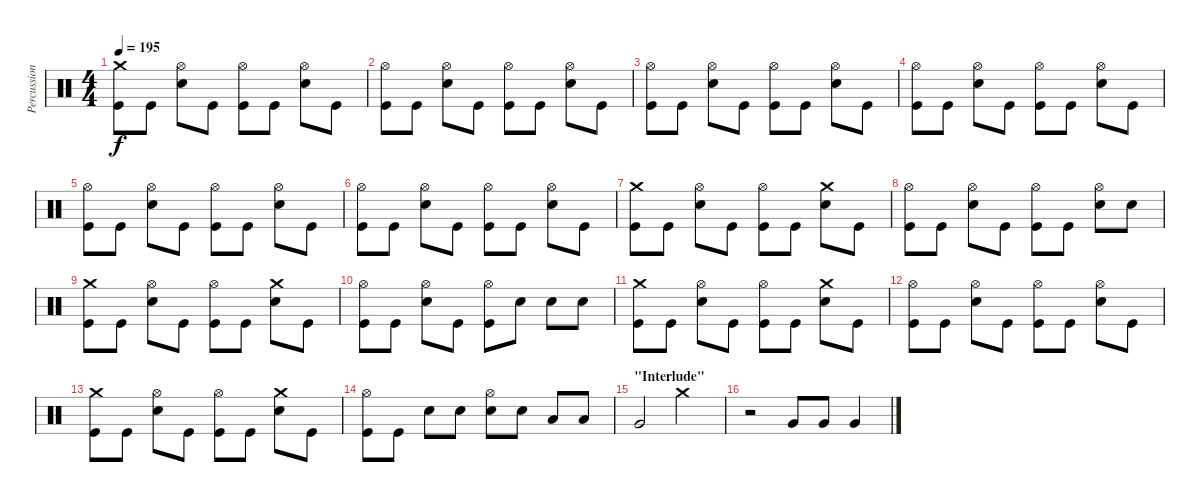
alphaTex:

\track ("Percussion" "Percussion") {instrument percussion}
\staff {score}
\articulation defaults
\ts (4 4)
\tempo 195
\clef neutral
\ks c
("Crash medium (hit)" "Kick (hit)").8{dy f} "Kick (hit)".8 ("Hi-Hat (open)" "Snare (hit) 2").8 "Kick (hit)".8 ("Hi-Hat (open)" "Kick (hit)").8 "Kick (hit)".8 ("Hi-Hat (open)" "Snare (hit) 2").8 "Kick (hit)".8 |
("Hi-Hat (open)" "Kick (hit)").8 "Kick (hit)".8 ("Hi-Hat (open)" "Snare (hit) 2").8 "Kick (hit)".8 ("Hi-Hat (open)" "Kick (hit)").8 "Kick (hit)".8 ("Hi-Hat (open)" "Snare (hit) 2").8 "Kick (hit)".8 |
("Hi-Hat (open)" "Kick (hit)").8 "Kick (hit)".8 ("Hi-Hat (open)" "Snare (hit) 2").8 "Kick (hit)".8 ("Hi-Hat (open)" "Kick (hit)").8 "Kick (hit)".8 ("Hi-Hat (open)" "Snare (hit) 2").8 "Kick (hit)".8 |
("Hi-Hat (open)" "Kick (hit)").8 "Kick (hit)".8 ("Hi-Hat (open)" "Snare (hit) 2").8 "Kick (hit)".8 ("Hi-Hat (open)" "Kick (hit)").8 "Kick (hit)".8 ("Hi-Hat (open)" "Snare (hit) 2").8 "Kick (hit)".8 |
("Hi-Hat (open)" "Kick (hit)").8 "Kick (hit)".8 ("Hi-Hat (open)" "Snare (hit) 2").8 "Kick (hit)".8 ("Hi-Hat (open)" "Kick (hit)").8 "Kick (hit)".8 ("Hi-Hat (open)" "Snare (hit) 2").8 "Kick (hit)".8 |
("Hi-Hat (open)" "Kick (hit)").8 "Kick (hit)".8 ("Hi-Hat (open)" "Snare (hit) 2").8 "Kick (hit)".8 ("Hi-Hat (open)" "Kick (hit)").8 "Kick (hit)".8 ("Hi-Hat (open)" "Snare (hit) 2").8 "Kick (hit)".8 |
("Crash medium (hit)" "Kick (hit)").8 "Kick (hit)".8 ("Hi-Hat (open)" "Snare (hit) 2").8 "Kick (hit)".8 ("Hi-Hat (open)" "Kick (hit)").8 "Kick (hit)".8 ("Crash medium (hit)" "Snare (hit) 2").8 "Kick (hit)".8 |
("Hi-Hat (open)" "Kick (hit)").8 "Kick (hit)".8 ("Hi-Hat (open)" "Snare (hit) 2").8 "Kick (hit)".8 ("Hi-Hat (open)" "Kick (hit)").8 "Kick (hit)".8 ("Hi-Hat (open)" "Snare (hit) 2").8 "Snare (hit) 2".8 |
("Crash medium (hit)" "Kick (hit)").8 "Kick (hit)".8 ("Hi-Hat (open)" "Snare (hit) 2").8 "Kick (hit)".8 ("Hi-Hat (open)" "Kick (hit)").8 "Kick (hit)".8 ("Crash medium (hit)" "Snare (hit) 2").8 "Kick (hit)".8 |
("Hi-Hat (open)" "Kick (hit)").8 "Kick (hit)".8 ("Hi-Hat (open)" "Snare (hit) 2").8 "Kick (hit)".8 ("Hi-Hat (open)" "Kick (hit)").8 "Snare (hit) 2".8 "Snare (hit) 2".8 "Snare (hit) 2".8 |
("Crash medium (hit)" "Kick (hit)").8 "Kick (hit)".8 ("Hi-Hat (open)" "Snare (hit) 2").8 "Kick (hit)".8 ("Hi-Hat (open)" "Kick (hit)").8 "Kick (hit)".8 ("Crash medium (hit)" "Snare (hit) 2").8 "Kick (hit)".8 |
("Hi-Hat (open)" "Kick (hit)").8 "Kick (hit)".8 ("Hi-Hat (open)" "Snare (hit) 2").8 "Kick (hit)".8 ("Hi-Hat (open)" "Kick (hit)").8 "Kick (hit)".8 ("Hi-Hat (open)" "Snare (hit) 2").8 "Kick (hit)".8 |
("Crash medium (hit)" "Kick (hit)").8 "Kick (hit)".8 ("Hi-Hat (open)" "Snare (hit) 2").8 "Kick (hit)".8 ("Hi-Hat (open)" "Kick (hit)").8 "Kick (hit)".8 ("Crash medium (hit)" "Snare (hit) 2").8 "Kick (hit)".8 |
("Hi-Hat (open)" "Kick (hit)").8 "Kick (hit)".8 "Snare (hit) 2".8 "Snare (hit) 2".8 ("Hi-Hat (open)" "Snare (hit) 2").8 "Snare (hit) 2".8 "Low Tom (hit)".8 "Low Tom (hit)".8 |
\section ("" "\"Interlude\"")
"Very Low Tom (hit)".2 "Crash medium (hit)".2 |
r.2 "Very Low Tom (hit)".8 "Very Low Tom (hit)".8 "Very Low Tom (hit)".4
